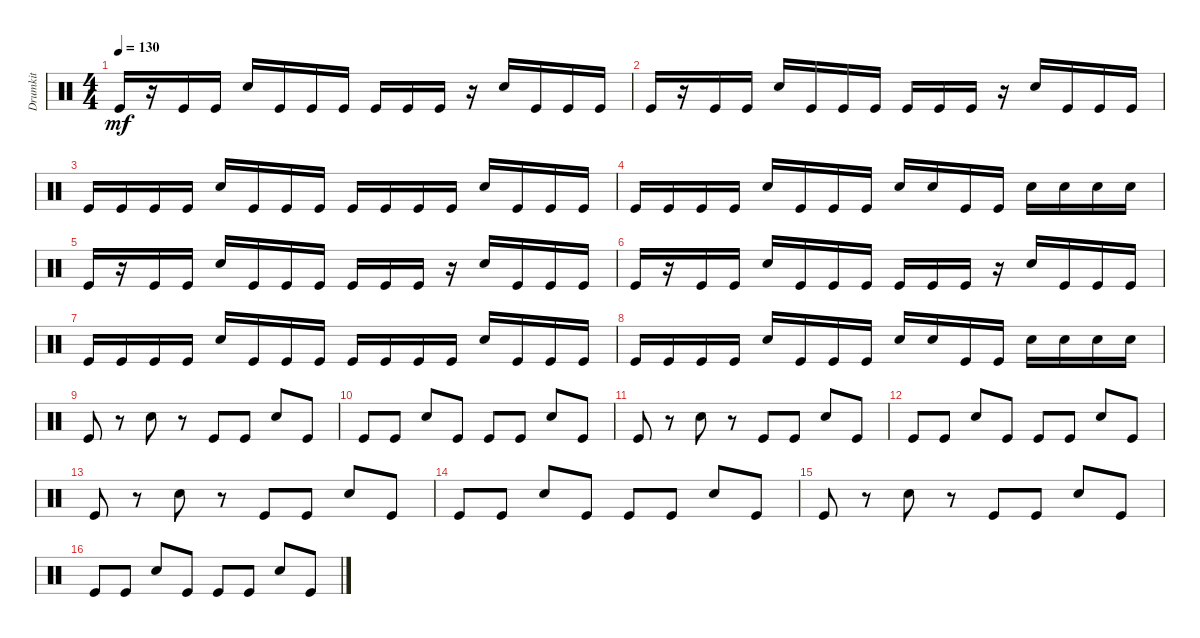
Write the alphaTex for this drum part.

\track ("Drumkit" "Drumkit") {instrument percussion}
\staff {score}
\articulation defaults
\ts (4 4)
\tempo 130
\clef neutral
\ks c "Kick (hit)".16{dy mf}
r.16 "Kick (hit)".16 "Kick (hit)".16 "Snare (hit) 2".16 "Kick (hit)".16 "Kick (hit)".16 "Kick (hit)".16 "Kick (hit)".16 "Kick (hit)".16 "Kick (hit)".16 r.16 "Snare (hit) 2".16 "Kick (hit)".16 "Kick (hit)".16 "Kick (hit)".16 |
"Kick (hit)".16 r.16 "Kick (hit)".16 "Kick (hit)".16 "Snare (hit) 2".16 "Kick (hit)".16 "Kick (hit)".16 "Kick (hit)".16 "Kick (hit)".16 "Kick (hit)".16 "Kick (hit)".16 r.16 "Snare (hit) 2".16 "Kick (hit)".16 "Kick (hit)".16 "Kick (hit)".16 |
"Kick (hit)".16 "Kick (hit)".16 "Kick (hit)".16 "Kick (hit)".16 "Snare (hit) 2".16 "Kick (hit)".16 "Kick (hit)".16 "Kick (hit)".16 "Kick (hit)".16 "Kick (hit)".16 "Kick (hit)".16 "Kick (hit)".16 "Snare (hit) 2".16 "Kick (hit)".16 "Kick (hit)".16 "Kick (hit)".16 |
"Kick (hit)".16 "Kick (hit)".16 "Kick (hit)".16 "Kick (hit)".16 "Snare (hit) 2".16 "Kick (hit)".16 "Kick (hit)".16 "Kick (hit)".16 "Snare (hit) 2".16 "Snare (hit) 2".16 "Kick (hit)".16 "Kick (hit)".16 "Snare (hit) 2".16 "Snare (hit) 2".16 "Snare (hit) 2".16 "Snare (hit) 2".16 |
"Kick (hit)".16 r.16 "Kick (hit)".16 "Kick (hit)".16 "Snare (hit) 2".16 "Kick (hit)".16 "Kick (hit)".16 "Kick (hit)".16 "Kick (hit)".16 "Kick (hit)".16 "Kick (hit)".16 r.16 "Snare (hit) 2".16 "Kick (hit)".16 "Kick (hit)".16 "Kick (hit)".16 |
"Kick (hit)".16 r.16 "Kick (hit)".16 "Kick (hit)".16 "Snare (hit) 2".16 "Kick (hit)".16 "Kick (hit)".16 "Kick (hit)".16 "Kick (hit)".16 "Kick (hit)".16 "Kick (hit)".16 r.16 "Snare (hit) 2".16 "Kick (hit)".16 "Kick (hit)".16 "Kick (hit)".16 |
"Kick (hit)".16 "Kick (hit)".16 "Kick (hit)".16 "Kick (hit)".16 "Snare (hit) 2".16 "Kick (hit)".16 "Kick (hit)".16 "Kick (hit)".16 "Kick (hit)".16 "Kick (hit)".16 "Kick (hit)".16 "Kick (hit)".16 "Snare (hit) 2".16 "Kick (hit)".16 "Kick (hit)".16 "Kick (hit)".16 |
"Kick (hit)".16 "Kick (hit)".16 "Kick (hit)".16 "Kick (hit)".16 "Snare (hit) 2".16 "Kick (hit)".16 "Kick (hit)".16 "Kick (hit)".16 "Snare (hit) 2".16 "Snare (hit) 2".16 "Kick (hit)".16 "Kick (hit)".16 "Snare (hit) 2".16 "Snare (hit) 2".16 "Snare (hit) 2".16 "Snare (hit) 2".16 |
"Kick (hit)".8 r.8 "Snare (hit) 2".8 r.8 "Kick (hit)".8 "Kick (hit)".8 "Snare (hit) 2".8 "Kick (hit)".8 |
"Kick (hit)".8 "Kick (hit)".8 "Snare (hit) 2".8 "Kick (hit)".8 "Kick (hit)".8 "Kick (hit)".8 "Snare (hit) 2".8 "Kick (hit)".8 |
"Kick (hit)".8 r.8 "Snare (hit) 2".8 r.8 "Kick (hit)".8 "Kick (hit)".8 "Snare (hit) 2".8 "Kick (hit)".8 |
"Kick (hit)".8 "Kick (hit)".8 "Snare (hit) 2".8 "Kick (hit)".8 "Kick (hit)".8 "Kick (hit)".8 "Snare (hit) 2".8 "Kick (hit)".8 |
"Kick (hit)".8 r.8 "Snare (hit) 2".8 r.8 "Kick (hit)".8 "Kick (hit)".8 "Snare (hit) 2".8 "Kick (hit)".8 |
"Kick (hit)".8 "Kick (hit)".8 "Snare (hit) 2".8 "Kick (hit)".8 "Kick (hit)".8 "Kick (hit)".8 "Snare (hit) 2".8 "Kick (hit)".8 |
"Kick (hit)".8 r.8 "Snare (hit) 2".8 r.8 "Kick (hit)".8 "Kick (hit)".8 "Snare (hit) 2".8 "Kick (hit)".8 |
"Kick (hit)".8 "Kick (hit)".8 "Snare (hit) 2".8 "Kick (hit)".8 "Kick (hit)".8 "Kick (hit)".8 "Snare (hit) 2".8 "Kick (hit)".8
